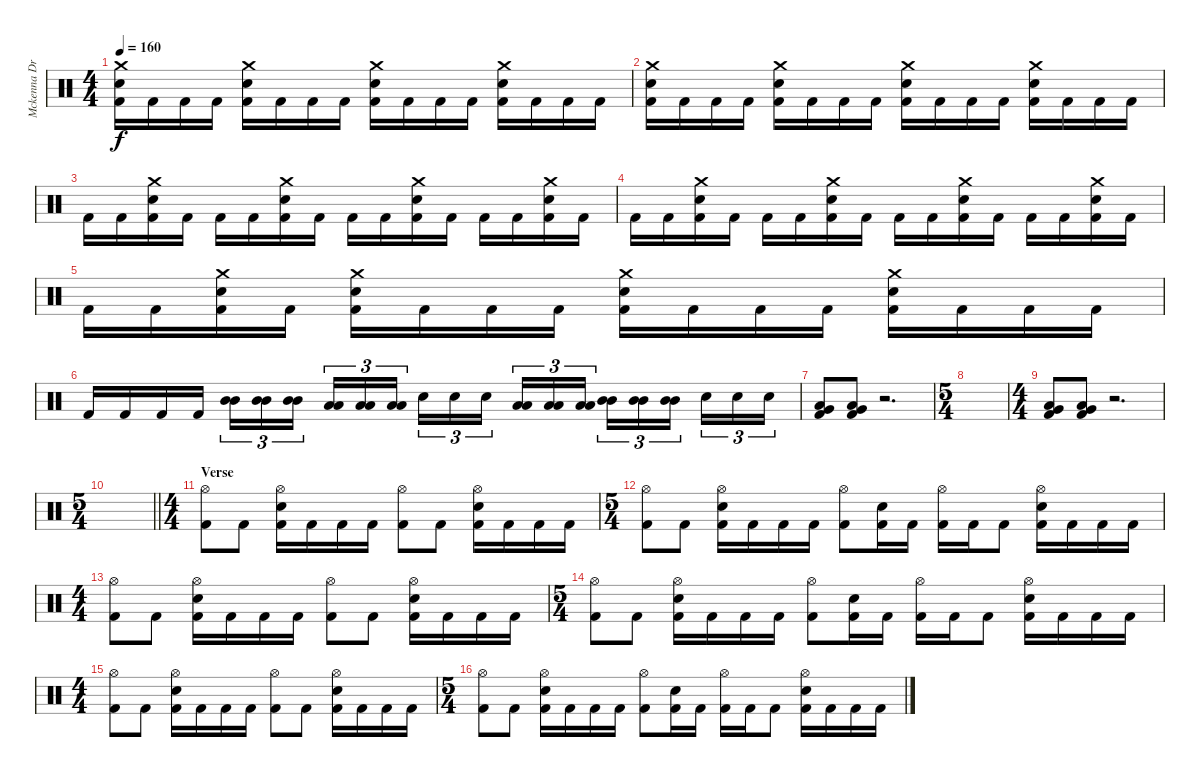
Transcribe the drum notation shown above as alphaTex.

\track ("Mckenna Drums" "Mckenna Dr") {instrument percussion}
\staff {score}
\articulation defaults
\ts (4 4)
\tempo 160
\clef neutral
\ks c
("Crash medium (hit)" "Electric Snare (hit)" "Kick (hit) 2").16{dy f} "Kick (hit) 2".16 "Kick (hit) 2".16 "Kick (hit) 2".16 ("Crash medium (hit)" "Electric Snare (hit)" "Kick (hit) 2").16 "Kick (hit) 2".16 "Kick (hit) 2".16 "Kick (hit) 2".16 ("Crash medium (hit)" "Electric Snare (hit)" "Kick (hit) 2").16 "Kick (hit) 2".16 "Kick (hit) 2".16 "Kick (hit) 2".16 ("Crash medium (hit)" "Electric Snare (hit)" "Kick (hit) 2").16 "Kick (hit) 2".16 "Kick (hit) 2".16 "Kick (hit) 2".16 |
("Crash medium (hit)" "Electric Snare (hit)" "Kick (hit) 2").16 "Kick (hit) 2".16 "Kick (hit) 2".16 "Kick (hit) 2".16 ("Crash medium (hit)" "Electric Snare (hit)" "Kick (hit) 2").16 "Kick (hit) 2".16 "Kick (hit) 2".16 "Kick (hit) 2".16 ("Crash medium (hit)" "Electric Snare (hit)" "Kick (hit) 2").16 "Kick (hit) 2".16 "Kick (hit) 2".16 "Kick (hit) 2".16 ("Crash medium (hit)" "Electric Snare (hit)" "Kick (hit) 2").16 "Kick (hit) 2".16 "Kick (hit) 2".16 "Kick (hit) 2".16 |
"Kick (hit) 2".16 "Kick (hit) 2".16 ("Crash medium (hit)" "Electric Snare (hit)" "Kick (hit) 2").16 "Kick (hit) 2".16 "Kick (hit) 2".16 "Kick (hit) 2".16 ("Crash medium (hit)" "Electric Snare (hit)" "Kick (hit) 2").16 "Kick (hit) 2".16 "Kick (hit) 2".16 "Kick (hit) 2".16 ("Crash medium (hit)" "Electric Snare (hit)" "Kick (hit) 2").16 "Kick (hit) 2".16 "Kick (hit) 2".16 "Kick (hit) 2".16 ("Crash medium (hit)" "Electric Snare (hit)" "Kick (hit) 2").16 "Kick (hit) 2".16 |
"Kick (hit) 2".16 "Kick (hit) 2".16 ("Crash medium (hit)" "Electric Snare (hit)" "Kick (hit) 2").16 "Kick (hit) 2".16 "Kick (hit) 2".16 "Kick (hit) 2".16 ("Crash medium (hit)" "Electric Snare (hit)" "Kick (hit) 2").16 "Kick (hit) 2".16 "Kick (hit) 2".16 "Kick (hit) 2".16 ("Crash medium (hit)" "Electric Snare (hit)" "Kick (hit) 2").16 "Kick (hit) 2".16 "Kick (hit) 2".16 "Kick (hit) 2".16 ("Crash medium (hit)" "Electric Snare (hit)" "Kick (hit) 2").16 "Kick (hit) 2".16 |
"Kick (hit) 2".16 "Kick (hit) 2".16 ("Crash medium (hit)" "Electric Snare (hit)" "Kick (hit) 2").16 "Kick (hit) 2".16 ("Crash medium (hit)" "Electric Snare (hit)" "Kick (hit) 2").16 "Kick (hit) 2".16 "Kick (hit) 2".16 "Kick (hit) 2".16 ("Crash medium (hit)" "Electric Snare (hit)" "Kick (hit) 2").16 "Kick (hit) 2".16 "Kick (hit) 2".16 "Kick (hit) 2".16 ("Crash medium (hit)" "Electric Snare (hit)" "Kick (hit) 2").16 "Kick (hit) 2".16 "Kick (hit) 2".16 "Kick (hit) 2".16 |
"Kick (hit) 2".16 "Kick (hit) 2".16 "Kick (hit) 2".16 "Kick (hit) 2".16 ("Mid Tom (hit)" "Mid Tom (hit)").16{tu (3 2)} ("Mid Tom (hit)" "Mid Tom (hit)").16{tu (3 2)} ("Mid Tom (hit)" "Mid Tom (hit)").16{tu (3 2) beam splitsecondary} ("Low Tom (hit)" "Low Tom (hit)").16{tu (3 2)} ("Low Tom (hit)" "Low Tom (hit)").16{tu (3 2)} ("Low Tom (hit)" "Low Tom (hit)").16{tu (3 2)} "Electric Snare (hit)".16{tu (3 2)} "Electric Snare (hit)".16{tu (3 2)} "Electric Snare (hit)".16{tu (3 2) beam splitsecondary} ("Low Tom (hit)" "Low Tom (hit)").16{tu (3 2)} ("Low Tom (hit)" "Low Tom (hit)").16{tu (3 2)} ("Low Tom (hit)" "Low Tom (hit)").16{tu (3 2)} ("Mid Tom (hit)" "Mid Tom (hit)").16{tu (3 2)} ("Mid Tom (hit)" "Mid Tom (hit)").16{tu (3 2)} ("Mid Tom (hit)" "Mid Tom (hit)").16{tu (3 2) beam splitsecondary} "Electric Snare (hit)".16{tu (3 2)} "Electric Snare (hit)".16{tu (3 2)} "Electric Snare (hit)".16{tu (3 2)} |
("Low Tom (hit)" "Very Low Tom (hit)" "Kick (hit) 2").8 ("Low Tom (hit)" "Very Low Tom (hit)" "Kick (hit) 2").8 r.2{d} |
\ts (5 4)
|
\ts (4 4)
("Low Tom (hit)" "Very Low Tom (hit)" "Kick (hit) 2").8 ("Low Tom (hit)" "Very Low Tom (hit)" "Kick (hit) 2").8 r.2{d} |
\ts (5 4)
\barLineRight lightlight
|
\ts (4 4)
\section ("" "Verse")
("Hi-Hat (open)" "Kick (hit) 2").8 "Kick (hit) 2".8 ("Hi-Hat (open)" "Electric Snare (hit)" "Kick (hit) 2").16 "Kick (hit) 2".16 "Kick (hit) 2".16 "Kick (hit) 2".16 ("Hi-Hat (open)" "Kick (hit) 2").8 "Kick (hit) 2".8 ("Hi-Hat (open)" "Electric Snare (hit)" "Kick (hit) 2").16 "Kick (hit) 2".16 "Kick (hit) 2".16 "Kick (hit) 2".16 |
\ts (5 4)
("Hi-Hat (open)" "Kick (hit) 2").8 "Kick (hit) 2".8 ("Hi-Hat (open)" "Electric Snare (hit)" "Kick (hit) 2").16 "Kick (hit) 2".16 "Kick (hit) 2".16 "Kick (hit) 2".16 ("Hi-Hat (open)" "Kick (hit) 2").8 ("Electric Snare (hit)" "Kick (hit) 2").16 "Kick (hit) 2".16 ("Hi-Hat (open)" "Kick (hit) 2").16 "Kick (hit) 2".16 "Kick (hit) 2".8 ("Hi-Hat (open)" "Electric Snare (hit)" "Kick (hit) 2").16 "Kick (hit) 2".16 "Kick (hit) 2".16 "Kick (hit) 2".16 |
\ts (4 4)
("Hi-Hat (open)" "Kick (hit) 2").8 "Kick (hit) 2".8 ("Hi-Hat (open)" "Electric Snare (hit)" "Kick (hit) 2").16 "Kick (hit) 2".16 "Kick (hit) 2".16 "Kick (hit) 2".16 ("Hi-Hat (open)" "Kick (hit) 2").8 "Kick (hit) 2".8 ("Hi-Hat (open)" "Electric Snare (hit)" "Kick (hit) 2").16 "Kick (hit) 2".16 "Kick (hit) 2".16 "Kick (hit) 2".16 |
\ts (5 4)
("Hi-Hat (open)" "Kick (hit) 2").8 "Kick (hit) 2".8 ("Hi-Hat (open)" "Electric Snare (hit)" "Kick (hit) 2").16 "Kick (hit) 2".16 "Kick (hit) 2".16 "Kick (hit) 2".16 ("Hi-Hat (open)" "Kick (hit) 2").8 ("Electric Snare (hit)" "Kick (hit) 2").16 "Kick (hit) 2".16 ("Hi-Hat (open)" "Kick (hit) 2").16 "Kick (hit) 2".16 "Kick (hit) 2".8 ("Hi-Hat (open)" "Electric Snare (hit)" "Kick (hit) 2").16 "Kick (hit) 2".16 "Kick (hit) 2".16 "Kick (hit) 2".16 |
\ts (4 4)
("Hi-Hat (open)" "Kick (hit) 2").8 "Kick (hit) 2".8 ("Hi-Hat (open)" "Electric Snare (hit)" "Kick (hit) 2").16 "Kick (hit) 2".16 "Kick (hit) 2".16 "Kick (hit) 2".16 ("Hi-Hat (open)" "Kick (hit) 2").8 "Kick (hit) 2".8 ("Hi-Hat (open)" "Electric Snare (hit)" "Kick (hit) 2").16 "Kick (hit) 2".16 "Kick (hit) 2".16 "Kick (hit) 2".16 |
\ts (5 4)
("Hi-Hat (open)" "Kick (hit) 2").8 "Kick (hit) 2".8 ("Hi-Hat (open)" "Electric Snare (hit)" "Kick (hit) 2").16 "Kick (hit) 2".16 "Kick (hit) 2".16 "Kick (hit) 2".16 ("Hi-Hat (open)" "Kick (hit) 2").8 ("Electric Snare (hit)" "Kick (hit) 2").16 "Kick (hit) 2".16 ("Hi-Hat (open)" "Kick (hit) 2").16 "Kick (hit) 2".16 "Kick (hit) 2".8 ("Hi-Hat (open)" "Electric Snare (hit)" "Kick (hit) 2").16 "Kick (hit) 2".16 "Kick (hit) 2".16 "Kick (hit) 2".16
